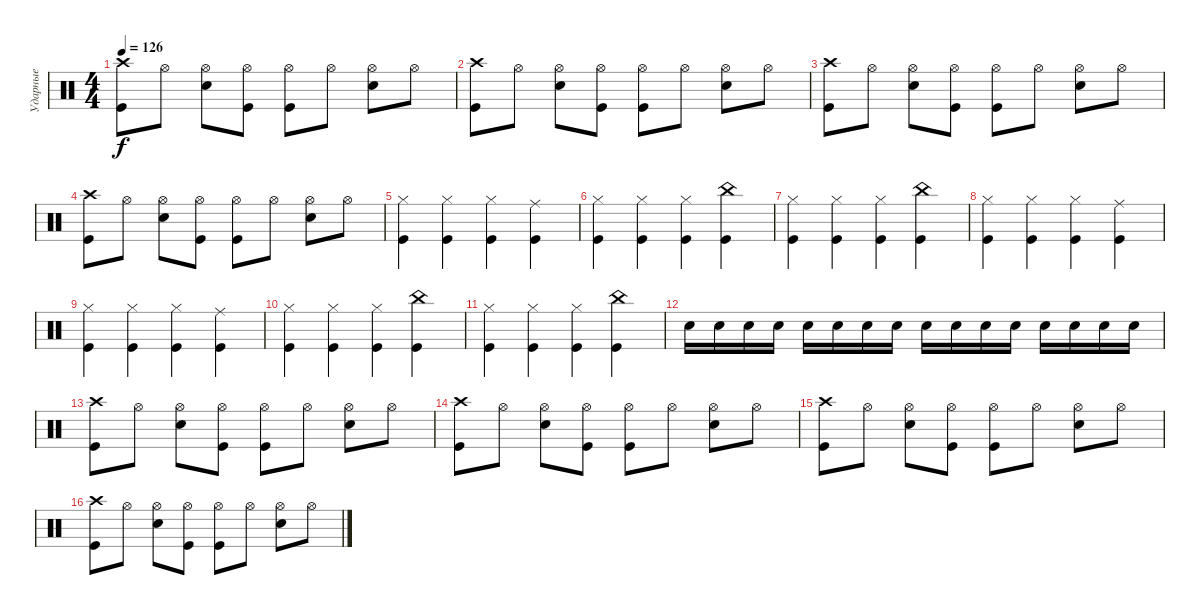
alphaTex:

\track ("Ударные" "Ударные") {instrument percussion}
\staff {score}
\articulation defaults
\ts (4 4)
\tempo 126
\clef neutral
\ks c
("Crash high (hit)" "Kick (hit)").8{dy f} "Hi-Hat (open)".8 ("Hi-Hat (open)" "Snare (hit) 2").8 ("Hi-Hat (open)" "Kick (hit)").8 ("Hi-Hat (open)" "Kick (hit)").8 "Hi-Hat (open)".8 ("Hi-Hat (open)" "Snare (hit) 2").8 "Hi-Hat (open)".8 |
("Crash high (hit)" "Kick (hit)").8 "Hi-Hat (open)".8 ("Hi-Hat (open)" "Snare (hit) 2").8 ("Hi-Hat (open)" "Kick (hit)").8 ("Hi-Hat (open)" "Kick (hit)").8 "Hi-Hat (open)".8 ("Hi-Hat (open)" "Snare (hit) 2").8 "Hi-Hat (open)".8 |
("Crash high (hit)" "Kick (hit)").8 "Hi-Hat (open)".8 ("Hi-Hat (open)" "Snare (hit) 2").8 ("Hi-Hat (open)" "Kick (hit)").8 ("Hi-Hat (open)" "Kick (hit)").8 "Hi-Hat (open)".8 ("Hi-Hat (open)" "Snare (hit) 2").8 "Hi-Hat (open)".8 |
("Crash high (hit)" "Kick (hit)").8 "Hi-Hat (open)".8 ("Hi-Hat (open)" "Snare (hit) 2").8 ("Hi-Hat (open)" "Kick (hit)").8 ("Hi-Hat (open)" "Kick (hit)").8 "Hi-Hat (open)".8 ("Hi-Hat (open)" "Snare (hit) 2").8 "Hi-Hat (open)".8 |
("Kick (hit)" "Hi-Hat (closed)").4 ("Kick (hit)" "Hi-Hat (closed)").4 ("Kick (hit)" "Hi-Hat (closed)").4 ("Kick (hit)" "Ride (middle)").4 |
("Kick (hit)" "Hi-Hat (closed)").4 ("Kick (hit)" "Hi-Hat (closed)").4 ("Kick (hit)" "Hi-Hat (closed)").4 ("Kick (hit)" "China (hit)").4 |
("Kick (hit)" "Hi-Hat (closed)").4 ("Kick (hit)" "Hi-Hat (closed)").4 ("Kick (hit)" "Hi-Hat (closed)").4 ("Kick (hit)" "China (hit)").4 |
("Kick (hit)" "Hi-Hat (closed)").4 ("Kick (hit)" "Hi-Hat (closed)").4 ("Kick (hit)" "Hi-Hat (closed)").4 ("Kick (hit)" "Ride (middle)").4 |
("Kick (hit)" "Hi-Hat (closed)").4 ("Kick (hit)" "Hi-Hat (closed)").4 ("Kick (hit)" "Hi-Hat (closed)").4 ("Kick (hit)" "Ride (middle)").4 |
("Kick (hit)" "Hi-Hat (closed)").4 ("Kick (hit)" "Hi-Hat (closed)").4 ("Kick (hit)" "Hi-Hat (closed)").4 ("Kick (hit)" "China (hit)").4 |
("Kick (hit)" "Hi-Hat (closed)").4 ("Kick (hit)" "Hi-Hat (closed)").4 ("Kick (hit)" "Hi-Hat (closed)").4 ("Kick (hit)" "China (hit)").4 |
"Snare (hit) 2".16 "Snare (hit) 2".16 "Snare (hit) 2".16 "Snare (hit) 2".16 "Snare (hit) 2".16 "Snare (hit) 2".16 "Snare (hit) 2".16 "Snare (hit) 2".16 "Snare (hit) 2".16 "Snare (hit) 2".16 "Snare (hit) 2".16 "Snare (hit) 2".16 "Snare (hit) 2".16 "Snare (hit) 2".16 "Snare (hit) 2".16 "Snare (hit) 2".16 |
("Crash high (hit)" "Kick (hit)").8 "Hi-Hat (open)".8 ("Hi-Hat (open)" "Snare (hit) 2").8 ("Hi-Hat (open)" "Kick (hit)").8 ("Hi-Hat (open)" "Kick (hit)").8 "Hi-Hat (open)".8 ("Hi-Hat (open)" "Snare (hit) 2").8 "Hi-Hat (open)".8 |
("Crash high (hit)" "Kick (hit)").8 "Hi-Hat (open)".8 ("Hi-Hat (open)" "Snare (hit) 2").8 ("Hi-Hat (open)" "Kick (hit)").8 ("Hi-Hat (open)" "Kick (hit)").8 "Hi-Hat (open)".8 ("Hi-Hat (open)" "Snare (hit) 2").8 "Hi-Hat (open)".8 |
("Crash high (hit)" "Kick (hit)").8 "Hi-Hat (open)".8 ("Hi-Hat (open)" "Snare (hit) 2").8 ("Hi-Hat (open)" "Kick (hit)").8 ("Hi-Hat (open)" "Kick (hit)").8 "Hi-Hat (open)".8 ("Hi-Hat (open)" "Snare (hit) 2").8 "Hi-Hat (open)".8 |
("Crash high (hit)" "Kick (hit)").8 "Hi-Hat (open)".8 ("Hi-Hat (open)" "Snare (hit) 2").8 ("Hi-Hat (open)" "Kick (hit)").8 ("Hi-Hat (open)" "Kick (hit)").8 "Hi-Hat (open)".8 ("Hi-Hat (open)" "Snare (hit) 2").8 "Hi-Hat (open)".8
